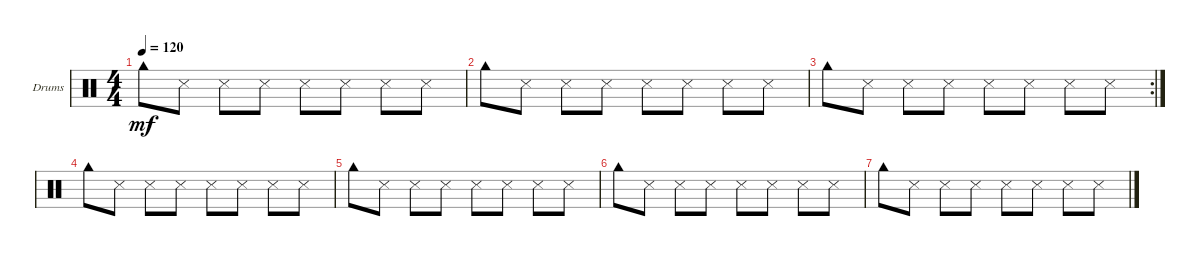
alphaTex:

\bracketExtendMode groupsimilarinstruments
\firstSystemTrackNameOrientation horizontal
\otherSystemsTrackNameOrientation horizontal
\track ("Drumkit" "Drums") {instrument percussion}
\staff {score}
\articulation defaults
\ts (4 4)
\tempo 120
\clef neutral
\scale
0.322034
\ks c "Cowbell high (hit)".8{dy mf} "Snare (side stick) 3".8 "Snare (side stick) 3".8 "Snare (side stick) 3".8 "Snare (side stick) 3".8 "Snare (side stick) 3".8 "Snare (side stick) 3".8 "Snare (side stick) 3".8
|
\scale
0.322034 "Cowbell high (hit)".8 "Snare (side stick) 3".8 "Snare (side stick) 3".8 "Snare (side stick) 3".8 "Snare (side stick) 3".8 "Snare (side stick) 3".8 "Snare (side stick) 3".8 "Snare (side stick) 3".8 |
\rc 2
\scale
0.355932 "Cowbell high (hit)".8 "Snare (side stick) 3".8 "Snare (side stick) 3".8 "Snare (side stick) 3".8 "Snare (side stick) 3".8 "Snare (side stick) 3".8 "Snare (side stick) 3".8 "Snare (side stick) 3".8 |
\scale
0.333333 "Cowbell high (hit)".8 "Snare (side stick) 3".8 "Snare (side stick) 3".8 "Snare (side stick) 3".8 "Snare (side stick) 3".8 "Snare (side stick) 3".8 "Snare (side stick) 3".8 "Snare (side stick) 3".8 |
\scale
0.333333 "Cowbell high (hit)".8 "Snare (side stick) 3".8 "Snare (side stick) 3".8 "Snare (side stick) 3".8 "Snare (side stick) 3".8 "Snare (side stick) 3".8 "Snare (side stick) 3".8 "Snare (side stick) 3".8 |
\scale
0.333333 "Cowbell high (hit)".8 "Snare (side stick) 3".8 "Snare (side stick) 3".8 "Snare (side stick) 3".8 "Snare (side stick) 3".8 "Snare (side stick) 3".8 "Snare (side stick) 3".8 "Snare (side stick) 3".8 |
"Cowbell high (hit)".8 "Snare (side stick) 3".8 "Snare (side stick) 3".8 "Snare (side stick) 3".8 "Snare (side stick) 3".8 "Snare (side stick) 3".8 "Snare (side stick) 3".8 "Snare (side stick) 3".8
